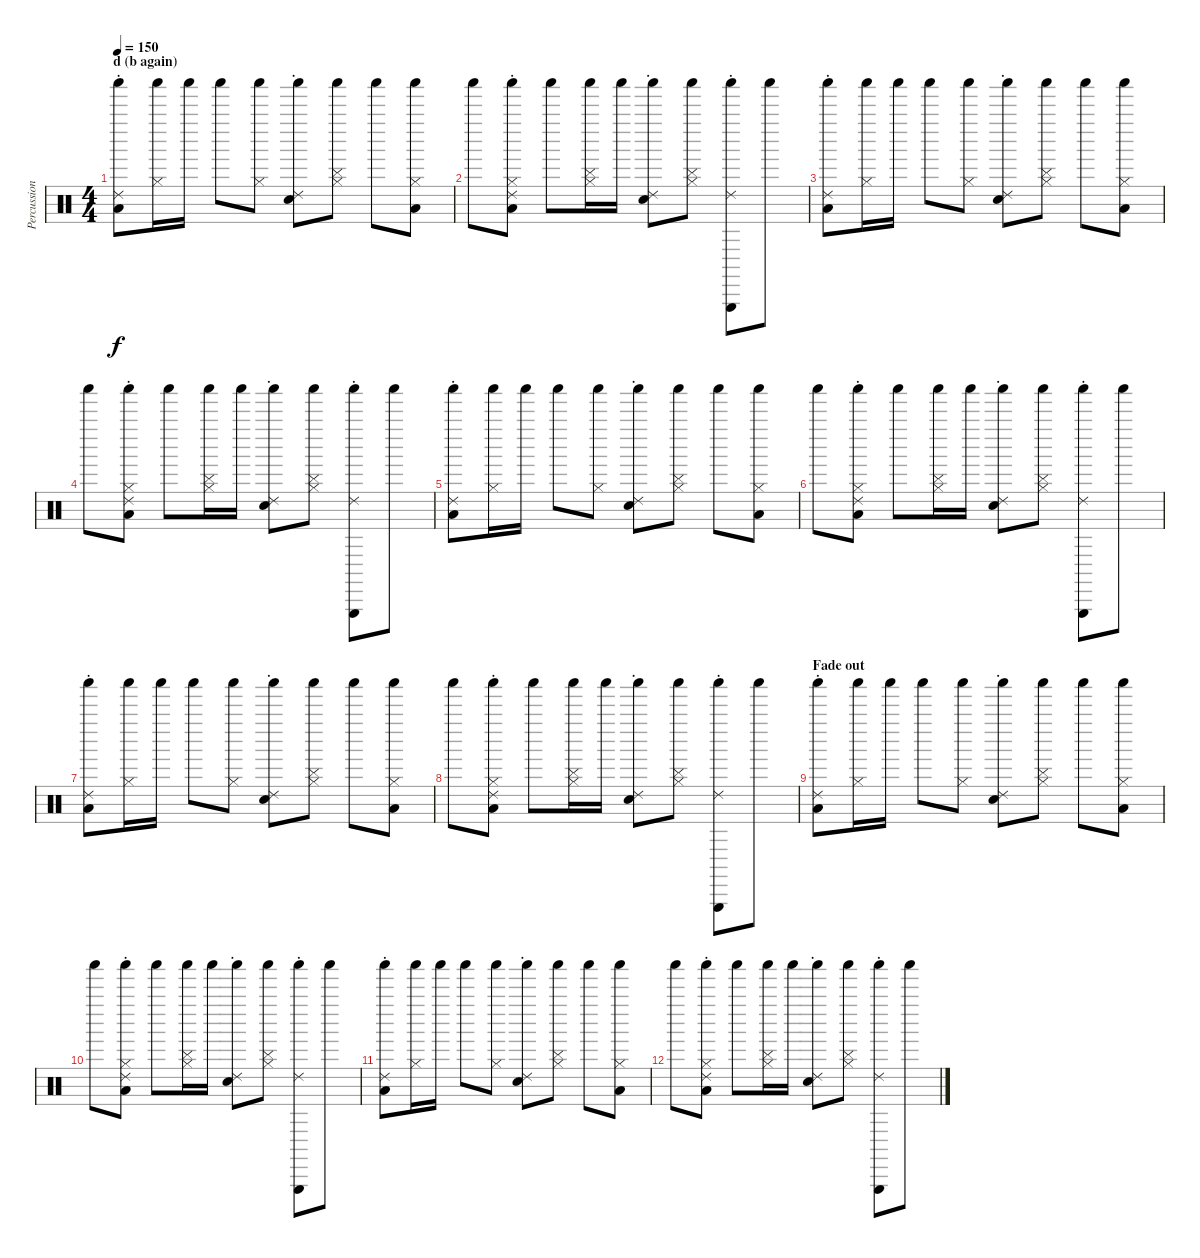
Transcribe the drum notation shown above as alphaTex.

\track ("Percussion" "Percussion") {instrument percussion}
\staff {score}
\articulation defaults
\ts (4 4)
\section ("" "d (b again)")
\tempo 150
\clef neutral
\ks c
("Ride (choke) 2" "Shaker (hit)" "Low Floor Tom (hit)").8{dy f} ("Hi-Hat (closed)" "Shaker (hit)").16 "Shaker (hit)".16 "Shaker (hit)".8 ("Hi-Hat (closed)" "Shaker (hit)").8 ("Ride (choke) 2" "Shaker (hit)" "Hand Clap (hit)").8 ("Cymbal (hit)" "Hi-Hat (closed)" "Shaker (hit)").8 "Shaker (hit)".8 ("Hi-Hat (closed)" "Shaker (hit)" "Low Floor Tom (hit)").8 |
"Shaker (hit)".8 ("Ride (choke) 2" "Hi-Hat (closed)" "Shaker (hit)" "Low Floor Tom (hit)").8 "Shaker (hit)".8 ("Cymbal (hit)" "Hi-Hat (closed)" "Shaker (hit)").16 "Shaker (hit)".16 ("Ride (choke) 2" "Shaker (hit)" "Hand Clap (hit)").8 ("Cymbal (hit)" "Hi-Hat (closed)" "Shaker (hit)").8 ("Ride (choke) 2" "Triangle (hit)" "Shaker (hit)").8 "Shaker (hit)".8 |
("Ride (choke) 2" "Shaker (hit)" "Low Floor Tom (hit)").8 ("Hi-Hat (closed)" "Shaker (hit)").16 "Shaker (hit)".16 "Shaker (hit)".8 ("Hi-Hat (closed)" "Shaker (hit)").8 ("Ride (choke) 2" "Shaker (hit)" "Hand Clap (hit)").8 ("Cymbal (hit)" "Hi-Hat (closed)" "Shaker (hit)").8 "Shaker (hit)".8 ("Hi-Hat (closed)" "Shaker (hit)" "Low Floor Tom (hit)").8 |
"Shaker (hit)".8 ("Ride (choke) 2" "Hi-Hat (closed)" "Shaker (hit)" "Low Floor Tom (hit)").8 "Shaker (hit)".8 ("Cymbal (hit)" "Hi-Hat (closed)" "Shaker (hit)").16 "Shaker (hit)".16 ("Ride (choke) 2" "Shaker (hit)" "Hand Clap (hit)").8 ("Cymbal (hit)" "Hi-Hat (closed)" "Shaker (hit)").8 ("Ride (choke) 2" "Triangle (hit)" "Shaker (hit)").8 "Shaker (hit)".8 |
("Ride (choke) 2" "Shaker (hit)" "Low Floor Tom (hit)").8 ("Hi-Hat (closed)" "Shaker (hit)").16 "Shaker (hit)".16 "Shaker (hit)".8 ("Hi-Hat (closed)" "Shaker (hit)").8 ("Ride (choke) 2" "Shaker (hit)" "Hand Clap (hit)").8 ("Cymbal (hit)" "Hi-Hat (closed)" "Shaker (hit)").8 "Shaker (hit)".8 ("Hi-Hat (closed)" "Shaker (hit)" "Low Floor Tom (hit)").8 |
"Shaker (hit)".8 ("Ride (choke) 2" "Hi-Hat (closed)" "Shaker (hit)" "Low Floor Tom (hit)").8 "Shaker (hit)".8 ("Cymbal (hit)" "Hi-Hat (closed)" "Shaker (hit)").16 "Shaker (hit)".16 ("Ride (choke) 2" "Shaker (hit)" "Hand Clap (hit)").8 ("Cymbal (hit)" "Hi-Hat (closed)" "Shaker (hit)").8 ("Ride (choke) 2" "Triangle (hit)" "Shaker (hit)").8 "Shaker (hit)".8 |
("Ride (choke) 2" "Shaker (hit)" "Low Floor Tom (hit)").8 ("Hi-Hat (closed)" "Shaker (hit)").16 "Shaker (hit)".16 "Shaker (hit)".8 ("Hi-Hat (closed)" "Shaker (hit)").8 ("Ride (choke) 2" "Shaker (hit)" "Hand Clap (hit)").8 ("Cymbal (hit)" "Hi-Hat (closed)" "Shaker (hit)").8 "Shaker (hit)".8 ("Hi-Hat (closed)" "Shaker (hit)" "Low Floor Tom (hit)").8 |
"Shaker (hit)".8 ("Ride (choke) 2" "Hi-Hat (closed)" "Shaker (hit)" "Low Floor Tom (hit)").8 "Shaker (hit)".8 ("Cymbal (hit)" "Hi-Hat (closed)" "Shaker (hit)").16 "Shaker (hit)".16 ("Ride (choke) 2" "Shaker (hit)" "Hand Clap (hit)").8 ("Cymbal (hit)" "Hi-Hat (closed)" "Shaker (hit)").8 ("Ride (choke) 2" "Triangle (hit)" "Shaker (hit)").8 "Shaker (hit)".8 |
\section ("" "Fade out")
("Ride (choke) 2" "Shaker (hit)" "Low Floor Tom (hit)").8 ("Hi-Hat (closed)" "Shaker (hit)").16 "Shaker (hit)".16 "Shaker (hit)".8 ("Hi-Hat (closed)" "Shaker (hit)").8 ("Ride (choke) 2" "Shaker (hit)" "Hand Clap (hit)").8 ("Cymbal (hit)" "Hi-Hat (closed)" "Shaker (hit)").8 "Shaker (hit)".8 ("Hi-Hat (closed)" "Shaker (hit)" "Low Floor Tom (hit)").8 |
"Shaker (hit)".8 ("Ride (choke) 2" "Hi-Hat (closed)" "Shaker (hit)" "Low Floor Tom (hit)").8 "Shaker (hit)".8 ("Cymbal (hit)" "Hi-Hat (closed)" "Shaker (hit)").16 "Shaker (hit)".16 ("Ride (choke) 2" "Shaker (hit)" "Hand Clap (hit)").8 ("Cymbal (hit)" "Hi-Hat (closed)" "Shaker (hit)").8 ("Ride (choke) 2" "Triangle (hit)" "Shaker (hit)").8 "Shaker (hit)".8 |
("Ride (choke) 2" "Shaker (hit)" "Low Floor Tom (hit)").8 ("Hi-Hat (closed)" "Shaker (hit)").16 "Shaker (hit)".16 "Shaker (hit)".8 ("Hi-Hat (closed)" "Shaker (hit)").8 ("Ride (choke) 2" "Shaker (hit)" "Hand Clap (hit)").8 ("Cymbal (hit)" "Hi-Hat (closed)" "Shaker (hit)").8 "Shaker (hit)".8 ("Hi-Hat (closed)" "Shaker (hit)" "Low Floor Tom (hit)").8 |
"Shaker (hit)".8 ("Ride (choke) 2" "Hi-Hat (closed)" "Shaker (hit)" "Low Floor Tom (hit)").8 "Shaker (hit)".8 ("Cymbal (hit)" "Hi-Hat (closed)" "Shaker (hit)").16 "Shaker (hit)".16 ("Ride (choke) 2" "Shaker (hit)" "Hand Clap (hit)").8 ("Cymbal (hit)" "Hi-Hat (closed)" "Shaker (hit)").8 ("Ride (choke) 2" "Triangle (hit)" "Shaker (hit)").8 "Shaker (hit)".8
